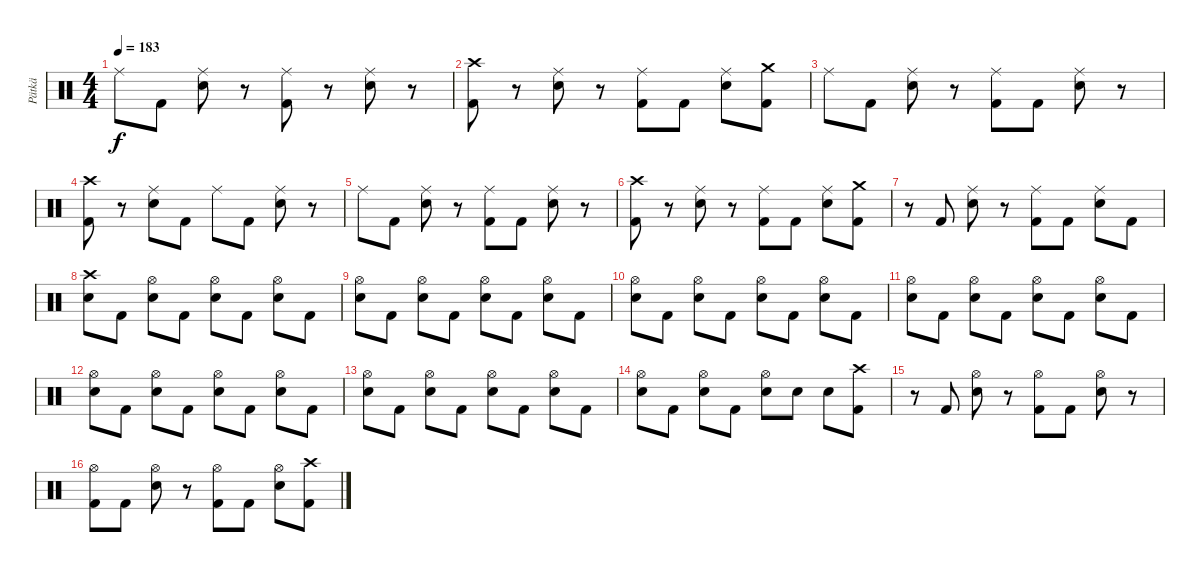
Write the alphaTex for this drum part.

\track ("Pätkä" "Pätkä") {instrument percussion}
\staff {score}
\articulation defaults
\ts (4 4)
\tempo 183
\clef neutral
\ks c "Ride (middle)".8{dy f} "Kick (hit) 2".8
("Ride (middle)" "Electric Snare (hit)").8 r.8 ("Ride (middle)" "Kick (hit) 2").8 r.8 ("Ride (middle)" "Electric Snare (hit)").8 r.8 |
("Crash high (hit)" "Kick (hit) 2").8 r.8 ("Ride (middle)" "Electric Snare (hit)").8 r.8 ("Ride (middle)" "Kick (hit) 2").8 "Kick (hit) 2".8 ("Ride (middle)" "Electric Snare (hit)").8 ("Crash medium (hit)" "Kick (hit) 2").8 |
"Ride (middle)".8 "Kick (hit) 2".8 ("Ride (middle)" "Electric Snare (hit)").8 r.8 ("Ride (middle)" "Kick (hit) 2").8 "Kick (hit) 2".8 ("Ride (middle)" "Electric Snare (hit)").8 r.8 |
("Crash high (hit)" "Kick (hit) 2").8 r.8 ("Ride (middle)" "Electric Snare (hit)").8 "Kick (hit) 2".8 "Ride (middle)".8 "Kick (hit) 2".8 ("Ride (middle)" "Electric Snare (hit)").8 r.8 |
"Ride (middle)".8 "Kick (hit) 2".8 ("Ride (middle)" "Electric Snare (hit)").8 r.8 ("Ride (middle)" "Kick (hit) 2").8 "Kick (hit) 2".8 ("Ride (middle)" "Electric Snare (hit)").8 r.8 |
("Crash high (hit)" "Kick (hit) 2").8 r.8 ("Ride (middle)" "Electric Snare (hit)").8 r.8 ("Ride (middle)" "Kick (hit) 2").8 "Kick (hit) 2".8 ("Ride (middle)" "Electric Snare (hit)").8 ("Crash medium (hit)" "Kick (hit) 2").8 |
r.8 "Kick (hit) 2".8 ("Ride (middle)" "Electric Snare (hit)").8 r.8 ("Ride (middle)" "Kick (hit) 2").8 "Kick (hit) 2".8 ("Ride (middle)" "Electric Snare (hit)").8 "Kick (hit) 2".8 |
("Crash high (hit)" "Electric Snare (hit)").8 "Kick (hit) 2".8 ("Hi-Hat (open)" "Electric Snare (hit)").8 "Kick (hit) 2".8 ("Hi-Hat (open)" "Electric Snare (hit)").8 "Kick (hit) 2".8 ("Hi-Hat (open)" "Electric Snare (hit)").8 "Kick (hit) 2".8 |
("Hi-Hat (open)" "Electric Snare (hit)").8 "Kick (hit) 2".8 ("Hi-Hat (open)" "Electric Snare (hit)").8 "Kick (hit) 2".8 ("Hi-Hat (open)" "Electric Snare (hit)").8 "Kick (hit) 2".8 ("Hi-Hat (open)" "Electric Snare (hit)").8 "Kick (hit) 2".8 |
("Hi-Hat (open)" "Electric Snare (hit)").8 "Kick (hit) 2".8 ("Hi-Hat (open)" "Electric Snare (hit)").8 "Kick (hit) 2".8 ("Hi-Hat (open)" "Electric Snare (hit)").8 "Kick (hit) 2".8 ("Hi-Hat (open)" "Electric Snare (hit)").8 "Kick (hit) 2".8 |
("Hi-Hat (open)" "Electric Snare (hit)").8 "Kick (hit) 2".8 ("Hi-Hat (open)" "Electric Snare (hit)").8 "Kick (hit) 2".8 ("Hi-Hat (open)" "Electric Snare (hit)").8 "Kick (hit) 2".8 ("Hi-Hat (open)" "Electric Snare (hit)").8 "Kick (hit) 2".8 |
("Hi-Hat (open)" "Electric Snare (hit)").8 "Kick (hit) 2".8 ("Hi-Hat (open)" "Electric Snare (hit)").8 "Kick (hit) 2".8 ("Hi-Hat (open)" "Electric Snare (hit)").8 "Kick (hit) 2".8 ("Hi-Hat (open)" "Electric Snare (hit)").8 "Kick (hit) 2".8 |
("Hi-Hat (open)" "Electric Snare (hit)").8 "Kick (hit) 2".8 ("Hi-Hat (open)" "Electric Snare (hit)").8 "Kick (hit) 2".8 ("Hi-Hat (open)" "Electric Snare (hit)").8 "Kick (hit) 2".8 ("Hi-Hat (open)" "Electric Snare (hit)").8 "Kick (hit) 2".8 |
("Hi-Hat (open)" "Electric Snare (hit)").8 "Kick (hit) 2".8 ("Hi-Hat (open)" "Electric Snare (hit)").8 "Kick (hit) 2".8 ("Hi-Hat (open)" "Electric Snare (hit)").8 "Electric Snare (hit)".8 "Electric Snare (hit)".8 ("Crash high (hit)" "Kick (hit) 2").8 |
r.8 "Kick (hit) 2".8 ("Hi-Hat (open)" "Electric Snare (hit)").8 r.8 ("Hi-Hat (open)" "Kick (hit) 2").8 "Kick (hit) 2".8 ("Hi-Hat (open)" "Electric Snare (hit)").8 r.8 |
("Hi-Hat (open)" "Kick (hit) 2").8 "Kick (hit) 2".8 ("Hi-Hat (open)" "Electric Snare (hit)").8 r.8 ("Hi-Hat (open)" "Kick (hit) 2").8 "Kick (hit) 2".8 ("Hi-Hat (open)" "Electric Snare (hit)").8 ("Crash high (hit)" "Kick (hit) 2").8
